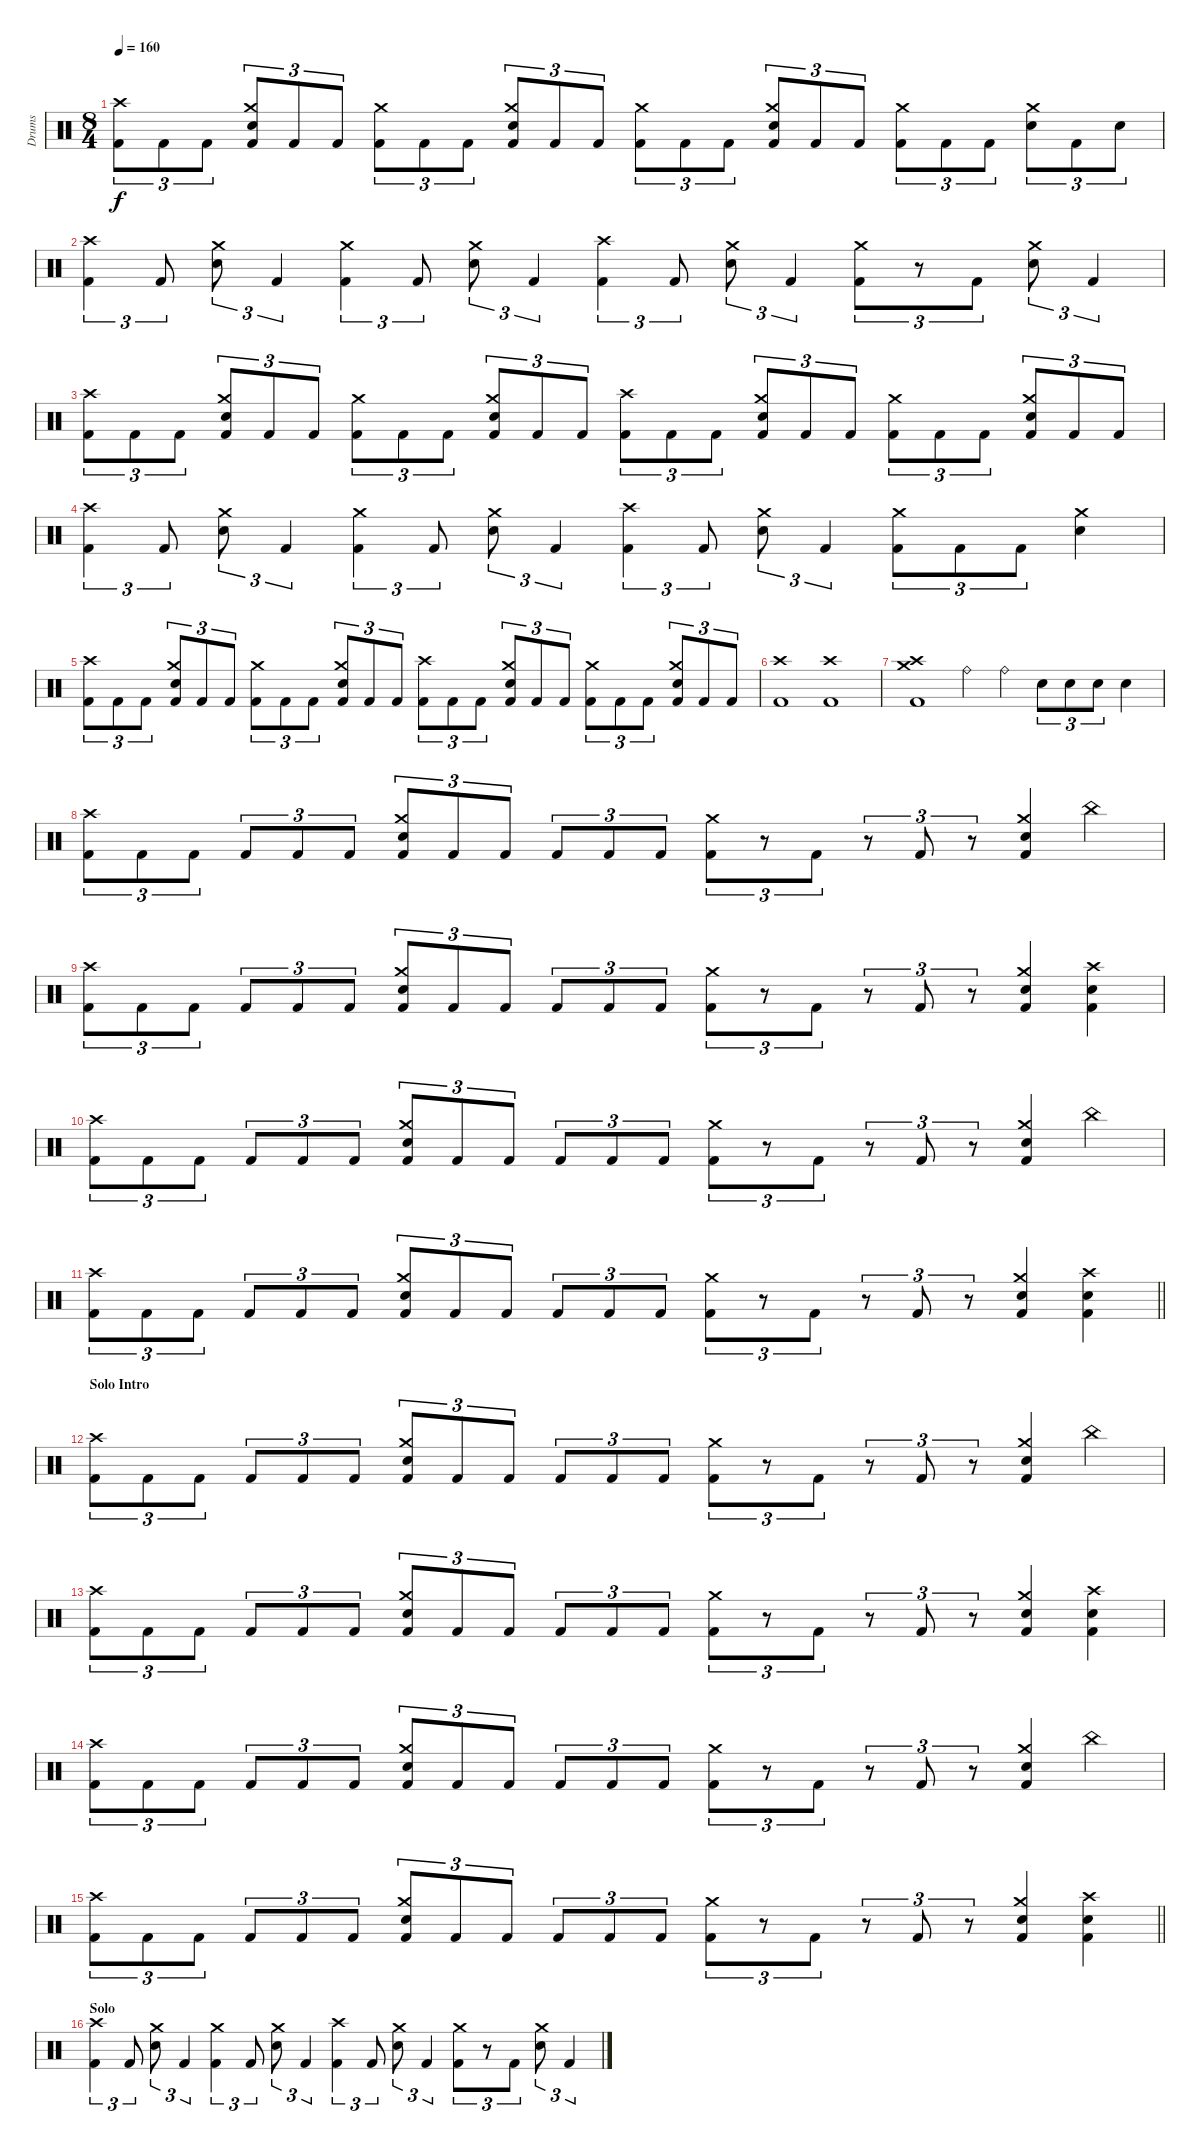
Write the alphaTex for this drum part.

\track ("Drums" "Drums") {instrument percussion}
\staff {score}
\articulation defaults
\ts (8 4)
\tempo 160
\clef neutral
\ks c
("Crash high (hit)" "Kick (hit) 2").8{tu (3 2) dy f} "Kick (hit) 2".8{tu (3 2)} "Kick (hit) 2".8{tu (3 2)} ("Crash medium (hit)" "Electric Snare (hit)" "Kick (hit) 2").8{tu (3 2)} "Kick (hit) 2".8{tu (3 2)} "Kick (hit) 2".8{tu (3 2)} ("Crash medium (hit)" "Kick (hit) 2").8{tu (3 2)} "Kick (hit) 2".8{tu (3 2)} "Kick (hit) 2".8{tu (3 2)} ("Crash medium (hit)" "Electric Snare (hit)" "Kick (hit) 2").8{tu (3 2)} "Kick (hit) 2".8{tu (3 2)} "Kick (hit) 2".8{tu (3 2)} ("Crash medium (hit)" "Kick (hit) 2").8{tu (3 2)} "Kick (hit) 2".8{tu (3 2)} "Kick (hit) 2".8{tu (3 2)} ("Crash medium (hit)" "Electric Snare (hit)" "Kick (hit) 2").8{tu (3 2)} "Kick (hit) 2".8{tu (3 2)} "Kick (hit) 2".8{tu (3 2)} ("Crash medium (hit)" "Kick (hit) 2").8{tu (3 2)} "Kick (hit) 2".8{tu (3 2)} "Kick (hit) 2".8{tu (3 2)} ("Crash medium (hit)" "Electric Snare (hit)").8{tu (3 2)} "Kick (hit) 2".8{tu (3 2)} "Electric Snare (hit)".8{tu (3 2)} |
("Crash high (hit)" "Kick (hit) 2").4{tu (3 2)} "Kick (hit) 2".8{tu (3 2)} ("Crash medium (hit)" "Electric Snare (hit)").8{tu (3 2)} "Kick (hit) 2".4{tu (3 2)} ("Crash medium (hit)" "Kick (hit) 2").4{tu (3 2)} "Kick (hit) 2".8{tu (3 2)} ("Crash medium (hit)" "Electric Snare (hit)").8{tu (3 2)} "Kick (hit) 2".4{tu (3 2)} ("Crash high (hit)" "Kick (hit) 2").4{tu (3 2)} "Kick (hit) 2".8{tu (3 2)} ("Crash medium (hit)" "Electric Snare (hit)").8{tu (3 2)} "Kick (hit) 2".4{tu (3 2)} ("Crash medium (hit)" "Kick (hit) 2").8{tu (3 2)} r.8{tu (3 2)} "Kick (hit) 2".8{tu (3 2)} ("Crash medium (hit)" "Electric Snare (hit)").8{tu (3 2)} "Kick (hit) 2".4{tu (3 2)} |
("Crash high (hit)" "Kick (hit) 2").8{tu (3 2)} "Kick (hit) 2".8{tu (3 2)} "Kick (hit) 2".8{tu (3 2)} ("Crash medium (hit)" "Electric Snare (hit)" "Kick (hit) 2").8{tu (3 2)} "Kick (hit) 2".8{tu (3 2)} "Kick (hit) 2".8{tu (3 2)} ("Crash medium (hit)" "Kick (hit) 2").8{tu (3 2)} "Kick (hit) 2".8{tu (3 2)} "Kick (hit) 2".8{tu (3 2)} ("Crash medium (hit)" "Electric Snare (hit)" "Kick (hit) 2").8{tu (3 2)} "Kick (hit) 2".8{tu (3 2)} "Kick (hit) 2".8{tu (3 2)} ("Crash high (hit)" "Kick (hit) 2").8{tu (3 2)} "Kick (hit) 2".8{tu (3 2)} "Kick (hit) 2".8{tu (3 2)} ("Crash medium (hit)" "Electric Snare (hit)" "Kick (hit) 2").8{tu (3 2)} "Kick (hit) 2".8{tu (3 2)} "Kick (hit) 2".8{tu (3 2)} ("Crash medium (hit)" "Kick (hit) 2").8{tu (3 2)} "Kick (hit) 2".8{tu (3 2)} "Kick (hit) 2".8{tu (3 2)} ("Crash medium (hit)" "Electric Snare (hit)" "Kick (hit) 2").8{tu (3 2)} "Kick (hit) 2".8{tu (3 2)} "Kick (hit) 2".8{tu (3 2)} |
("Crash high (hit)" "Kick (hit) 2").4{tu (3 2)} "Kick (hit) 2".8{tu (3 2)} ("Crash medium (hit)" "Electric Snare (hit)").8{tu (3 2)} "Kick (hit) 2".4{tu (3 2)} ("Crash medium (hit)" "Kick (hit) 2").4{tu (3 2)} "Kick (hit) 2".8{tu (3 2)} ("Crash medium (hit)" "Electric Snare (hit)").8{tu (3 2)} "Kick (hit) 2".4{tu (3 2)} ("Crash high (hit)" "Kick (hit) 2").4{tu (3 2)} "Kick (hit) 2".8{tu (3 2)} ("Crash medium (hit)" "Electric Snare (hit)").8{tu (3 2)} "Kick (hit) 2".4{tu (3 2)} ("Crash medium (hit)" "Kick (hit) 2").8{tu (3 2)} "Kick (hit) 2".8{tu (3 2)} "Kick (hit) 2".8{tu (3 2)} ("Crash medium (hit)" "Electric Snare (hit)").4 |
("Crash high (hit)" "Kick (hit) 2").8{tu (3 2)} "Kick (hit) 2".8{tu (3 2)} "Kick (hit) 2".8{tu (3 2)} ("Crash medium (hit)" "Electric Snare (hit)" "Kick (hit) 2").8{tu (3 2)} "Kick (hit) 2".8{tu (3 2)} "Kick (hit) 2".8{tu (3 2)} ("Crash medium (hit)" "Kick (hit) 2").8{tu (3 2)} "Kick (hit) 2".8{tu (3 2)} "Kick (hit) 2".8{tu (3 2)} ("Crash medium (hit)" "Electric Snare (hit)" "Kick (hit) 2").8{tu (3 2)} "Kick (hit) 2".8{tu (3 2)} "Kick (hit) 2".8{tu (3 2)} ("Crash high (hit)" "Kick (hit) 2").8{tu (3 2)} "Kick (hit) 2".8{tu (3 2)} "Kick (hit) 2".8{tu (3 2)} ("Crash medium (hit)" "Electric Snare (hit)" "Kick (hit) 2").8{tu (3 2)} "Kick (hit) 2".8{tu (3 2)} "Kick (hit) 2".8{tu (3 2)} ("Crash medium (hit)" "Kick (hit) 2").8{tu (3 2)} "Kick (hit) 2".8{tu (3 2)} "Kick (hit) 2".8{tu (3 2)} ("Crash medium (hit)" "Electric Snare (hit)" "Kick (hit) 2").8{tu (3 2)} "Kick (hit) 2".8{tu (3 2)} "Kick (hit) 2".8{tu (3 2)} |
("Crash high (hit)" "Kick (hit) 2").1 ("Crash high (hit)" "Kick (hit) 2").1 |
("Crash high (hit)" "Crash medium (hit)" "Kick (hit) 2").1 "Ride (bell)".4 "Ride (bell)".4 "Electric Snare (hit)".8{tu (3 2)} "Electric Snare (hit)".8{tu (3 2)} "Electric Snare (hit)".8{tu (3 2)} "Electric Snare (hit)".4 |
("Crash high (hit)" "Kick (hit) 2").8{tu (3 2)} "Kick (hit) 2".8{tu (3 2)} "Kick (hit) 2".8{tu (3 2)} "Kick (hit) 2".8{tu (3 2)} "Kick (hit) 2".8{tu (3 2)} "Kick (hit) 2".8{tu (3 2)} ("Crash medium (hit)" "Electric Snare (hit)" "Kick (hit) 2").8{tu (3 2)} "Kick (hit) 2".8{tu (3 2)} "Kick (hit) 2".8{tu (3 2)} "Kick (hit) 2".8{tu (3 2)} "Kick (hit) 2".8{tu (3 2)} "Kick (hit) 2".8{tu (3 2)} ("Crash medium (hit)" "Kick (hit) 2").8{tu (3 2)} r.8{tu (3 2)} "Kick (hit) 2".8{tu (3 2)} r.8{tu (3 2)} "Kick (hit) 2".8{tu (3 2)} r.8{tu (3 2)} ("Crash medium (hit)" "Electric Snare (hit)" "Kick (hit) 2").4 "China (hit)".4 |
("Crash high (hit)" "Kick (hit) 2").8{tu (3 2)} "Kick (hit) 2".8{tu (3 2)} "Kick (hit) 2".8{tu (3 2)} "Kick (hit) 2".8{tu (3 2)} "Kick (hit) 2".8{tu (3 2)} "Kick (hit) 2".8{tu (3 2)} ("Crash medium (hit)" "Electric Snare (hit)" "Kick (hit) 2").8{tu (3 2)} "Kick (hit) 2".8{tu (3 2)} "Kick (hit) 2".8{tu (3 2)} "Kick (hit) 2".8{tu (3 2)} "Kick (hit) 2".8{tu (3 2)} "Kick (hit) 2".8{tu (3 2)} ("Crash medium (hit)" "Kick (hit) 2").8{tu (3 2)} r.8{tu (3 2)} "Kick (hit) 2".8{tu (3 2)} r.8{tu (3 2)} "Kick (hit) 2".8{tu (3 2)} r.8{tu (3 2)} ("Crash medium (hit)" "Electric Snare (hit)" "Kick (hit) 2").4 ("Crash high (hit)" "Electric Snare (hit)" "Kick (hit) 2").4 |
("Crash high (hit)" "Kick (hit) 2").8{tu (3 2)} "Kick (hit) 2".8{tu (3 2)} "Kick (hit) 2".8{tu (3 2)} "Kick (hit) 2".8{tu (3 2)} "Kick (hit) 2".8{tu (3 2)} "Kick (hit) 2".8{tu (3 2)} ("Crash medium (hit)" "Electric Snare (hit)" "Kick (hit) 2").8{tu (3 2)} "Kick (hit) 2".8{tu (3 2)} "Kick (hit) 2".8{tu (3 2)} "Kick (hit) 2".8{tu (3 2)} "Kick (hit) 2".8{tu (3 2)} "Kick (hit) 2".8{tu (3 2)} ("Crash medium (hit)" "Kick (hit) 2").8{tu (3 2)} r.8{tu (3 2)} "Kick (hit) 2".8{tu (3 2)} r.8{tu (3 2)} "Kick (hit) 2".8{tu (3 2)} r.8{tu (3 2)} ("Crash medium (hit)" "Electric Snare (hit)" "Kick (hit) 2").4 "China (hit)".4 |
\barLineRight lightlight
("Crash high (hit)" "Kick (hit) 2").8{tu (3 2)} "Kick (hit) 2".8{tu (3 2)} "Kick (hit) 2".8{tu (3 2)} "Kick (hit) 2".8{tu (3 2)} "Kick (hit) 2".8{tu (3 2)} "Kick (hit) 2".8{tu (3 2)} ("Crash medium (hit)" "Electric Snare (hit)" "Kick (hit) 2").8{tu (3 2)} "Kick (hit) 2".8{tu (3 2)} "Kick (hit) 2".8{tu (3 2)} "Kick (hit) 2".8{tu (3 2)} "Kick (hit) 2".8{tu (3 2)} "Kick (hit) 2".8{tu (3 2)} ("Crash medium (hit)" "Kick (hit) 2").8{tu (3 2)} r.8{tu (3 2)} "Kick (hit) 2".8{tu (3 2)} r.8{tu (3 2)} "Kick (hit) 2".8{tu (3 2)} r.8{tu (3 2)} ("Crash medium (hit)" "Electric Snare (hit)" "Kick (hit) 2").4 ("Crash high (hit)" "Electric Snare (hit)" "Kick (hit) 2").4 |
\section ("" "Solo Intro")
("Crash high (hit)" "Kick (hit) 2").8{tu (3 2)} "Kick (hit) 2".8{tu (3 2)} "Kick (hit) 2".8{tu (3 2)} "Kick (hit) 2".8{tu (3 2)} "Kick (hit) 2".8{tu (3 2)} "Kick (hit) 2".8{tu (3 2)} ("Crash medium (hit)" "Electric Snare (hit)" "Kick (hit) 2").8{tu (3 2)} "Kick (hit) 2".8{tu (3 2)} "Kick (hit) 2".8{tu (3 2)} "Kick (hit) 2".8{tu (3 2)} "Kick (hit) 2".8{tu (3 2)} "Kick (hit) 2".8{tu (3 2)} ("Crash medium (hit)" "Kick (hit) 2").8{tu (3 2)} r.8{tu (3 2)} "Kick (hit) 2".8{tu (3 2)} r.8{tu (3 2)} "Kick (hit) 2".8{tu (3 2)} r.8{tu (3 2)} ("Crash medium (hit)" "Electric Snare (hit)" "Kick (hit) 2").4 "China (hit)".4 |
("Crash high (hit)" "Kick (hit) 2").8{tu (3 2)} "Kick (hit) 2".8{tu (3 2)} "Kick (hit) 2".8{tu (3 2)} "Kick (hit) 2".8{tu (3 2)} "Kick (hit) 2".8{tu (3 2)} "Kick (hit) 2".8{tu (3 2)} ("Crash medium (hit)" "Electric Snare (hit)" "Kick (hit) 2").8{tu (3 2)} "Kick (hit) 2".8{tu (3 2)} "Kick (hit) 2".8{tu (3 2)} "Kick (hit) 2".8{tu (3 2)} "Kick (hit) 2".8{tu (3 2)} "Kick (hit) 2".8{tu (3 2)} ("Crash medium (hit)" "Kick (hit) 2").8{tu (3 2)} r.8{tu (3 2)} "Kick (hit) 2".8{tu (3 2)} r.8{tu (3 2)} "Kick (hit) 2".8{tu (3 2)} r.8{tu (3 2)} ("Crash medium (hit)" "Electric Snare (hit)" "Kick (hit) 2").4 ("Crash high (hit)" "Electric Snare (hit)" "Kick (hit) 2").4 |
("Crash high (hit)" "Kick (hit) 2").8{tu (3 2)} "Kick (hit) 2".8{tu (3 2)} "Kick (hit) 2".8{tu (3 2)} "Kick (hit) 2".8{tu (3 2)} "Kick (hit) 2".8{tu (3 2)} "Kick (hit) 2".8{tu (3 2)} ("Crash medium (hit)" "Electric Snare (hit)" "Kick (hit) 2").8{tu (3 2)} "Kick (hit) 2".8{tu (3 2)} "Kick (hit) 2".8{tu (3 2)} "Kick (hit) 2".8{tu (3 2)} "Kick (hit) 2".8{tu (3 2)} "Kick (hit) 2".8{tu (3 2)} ("Crash medium (hit)" "Kick (hit) 2").8{tu (3 2)} r.8{tu (3 2)} "Kick (hit) 2".8{tu (3 2)} r.8{tu (3 2)} "Kick (hit) 2".8{tu (3 2)} r.8{tu (3 2)} ("Crash medium (hit)" "Electric Snare (hit)" "Kick (hit) 2").4 "China (hit)".4 |
\barLineRight lightlight
("Crash high (hit)" "Kick (hit) 2").8{tu (3 2)} "Kick (hit) 2".8{tu (3 2)} "Kick (hit) 2".8{tu (3 2)} "Kick (hit) 2".8{tu (3 2)} "Kick (hit) 2".8{tu (3 2)} "Kick (hit) 2".8{tu (3 2)} ("Crash medium (hit)" "Electric Snare (hit)" "Kick (hit) 2").8{tu (3 2)} "Kick (hit) 2".8{tu (3 2)} "Kick (hit) 2".8{tu (3 2)} "Kick (hit) 2".8{tu (3 2)} "Kick (hit) 2".8{tu (3 2)} "Kick (hit) 2".8{tu (3 2)} ("Crash medium (hit)" "Kick (hit) 2").8{tu (3 2)} r.8{tu (3 2)} "Kick (hit) 2".8{tu (3 2)} r.8{tu (3 2)} "Kick (hit) 2".8{tu (3 2)} r.8{tu (3 2)} ("Crash medium (hit)" "Electric Snare (hit)" "Kick (hit) 2").4 ("Crash high (hit)" "Electric Snare (hit)" "Kick (hit) 2").4 |
\section ("" "Solo")
("Crash high (hit)" "Kick (hit) 2").4{tu (3 2)} "Kick (hit) 2".8{tu (3 2)} ("Crash medium (hit)" "Electric Snare (hit)").8{tu (3 2)} "Kick (hit) 2".4{tu (3 2)} ("Crash medium (hit)" "Kick (hit) 2").4{tu (3 2)} "Kick (hit) 2".8{tu (3 2)} ("Crash medium (hit)" "Electric Snare (hit)").8{tu (3 2)} "Kick (hit) 2".4{tu (3 2)} ("Crash high (hit)" "Kick (hit) 2").4{tu (3 2)} "Kick (hit) 2".8{tu (3 2)} ("Crash medium (hit)" "Electric Snare (hit)").8{tu (3 2)} "Kick (hit) 2".4{tu (3 2)} ("Crash medium (hit)" "Kick (hit) 2").8{tu (3 2)} r.8{tu (3 2)} "Kick (hit) 2".8{tu (3 2)} ("Crash medium (hit)" "Electric Snare (hit)").8{tu (3 2)} "Kick (hit) 2".4{tu (3 2)}
